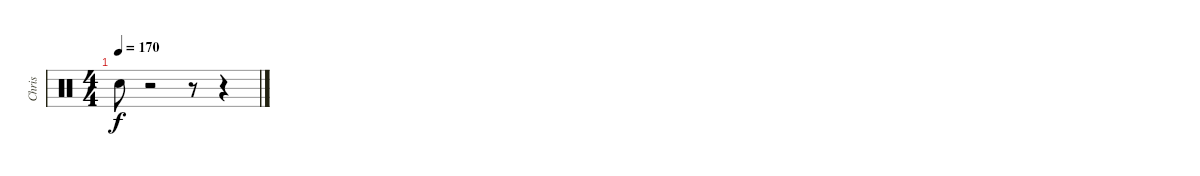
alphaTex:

\track ("Chris" "Chris") {instrument percussion}
\staff {score}
\articulation defaults
\ts (4 4)
\tempo 170
\clef neutral
\ks c "Snare (hit)"{t}.8{dy f}
r.2 r.8 r.4
